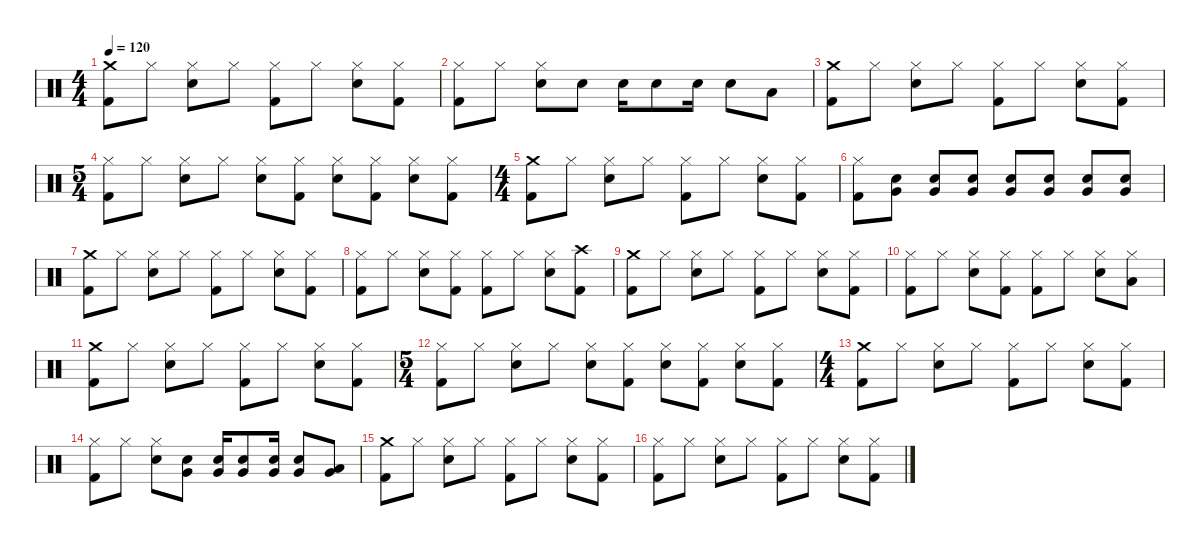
\defaultSystemsLayout 4
\hideDynamics
\bracketExtendMode nobrackets
\singleTrackTrackNamePolicy hidden
\multiTrackTrackNamePolicy hidden
\otherSystemsTrackNameOrientation horizontal
\track ("Ulrich" "drm.") {instrument percussion}
\staff {score}
\articulation defaults
\ts (4 4)
\tempo 120
\clef neutral
\ks c
("Crash medium (hit)" "Kick (hit) 2").8{dy f beam Down} "Hi-Hat (closed)".8{beam Down} ("Hi-Hat (closed)" "Snare (hit) 2").8{beam Down} "Hi-Hat (closed)".8{beam Down} ("Hi-Hat (closed)" "Kick (hit) 2").8{beam Down} "Hi-Hat (closed)".8{beam Down} ("Hi-Hat (closed)" "Snare (hit) 2").8{beam Down} ("Hi-Hat (closed)" "Kick (hit) 2").8{beam Down} |
("Hi-Hat (closed)" "Kick (hit) 2").8{beam Down} "Hi-Hat (closed)".8{beam Down} ("Hi-Hat (closed)" "Snare (hit) 2").8{beam Down} "Snare (hit) 2".8{beam Down} "Snare (hit) 2".16{beam Down} "Snare (hit) 2".8{beam Down} "Snare (hit) 2".16{beam Down} "Snare (hit) 2".8{beam Down} "Low Tom (hit)".8{dy fff beam Down} |
("Crash medium (hit)" "Kick (hit) 2").8{dy f beam Down} "Hi-Hat (closed)".8{beam Down} ("Hi-Hat (closed)" "Snare (hit) 2").8{beam Down} "Hi-Hat (closed)".8{beam Down} ("Hi-Hat (closed)" "Kick (hit) 2").8{beam Down} "Hi-Hat (closed)".8{beam Down} ("Hi-Hat (closed)" "Snare (hit) 2").8{beam Down} ("Hi-Hat (closed)" "Kick (hit) 2").8{beam Down} |
\ts (5 4)
("Hi-Hat (closed)" "Kick (hit) 2").8{beam Down} "Hi-Hat (closed)".8{beam Down} ("Hi-Hat (closed)" "Snare (hit) 2").8{beam Down} "Hi-Hat (closed)".8{beam Down} ("Hi-Hat (closed)" "Snare (hit) 2").8{beam Down} ("Hi-Hat (closed)" "Kick (hit) 2").8{beam Down} ("Hi-Hat (closed)" "Snare (hit) 2").8{beam Down} ("Hi-Hat (closed)" "Kick (hit) 2").8{beam Down} ("Hi-Hat (closed)" "Snare (hit) 2").8{beam Down} ("Hi-Hat (closed)" "Kick (hit) 2").8{beam Down} |
\ts (4 4)
("Crash medium (hit)" "Kick (hit) 2").8{beam Down} "Hi-Hat (closed)".8{beam Down} ("Hi-Hat (closed)" "Snare (hit) 2").8{beam Down} "Hi-Hat (closed)".8{beam Down} ("Hi-Hat (closed)" "Kick (hit) 2").8{beam Down} "Hi-Hat (closed)".8{beam Down} ("Hi-Hat (closed)" "Snare (hit) 2").8{beam Down} ("Hi-Hat (closed)" "Kick (hit) 2").8{beam Down} |
("Hi-Hat (closed)" "Kick (hit) 2").8{beam Down} ("Snare (hit) 2" "Very Low Tom (hit)").8{beam Down} ("Snare (hit) 2" "Very Low Tom (hit)").8{beam Up} ("Snare (hit) 2" "Very Low Tom (hit)").8{beam Up} ("Snare (hit) 2" "Very Low Tom (hit)").8{beam Up} ("Snare (hit) 2" "Very Low Tom (hit)").8{beam Up} ("Snare (hit) 2" "Very Low Tom (hit)").8{beam Up} ("Snare (hit) 2" "Very Low Tom (hit)").8{beam Up} |
("Crash medium (hit)" "Kick (hit) 2").8{beam Down} "Hi-Hat (closed)".8{beam Down} ("Hi-Hat (closed)" "Snare (hit) 2").8{beam Down} "Hi-Hat (closed)".8{beam Down} ("Hi-Hat (closed)" "Kick (hit) 2").8{beam Down} "Hi-Hat (closed)".8{beam Down} ("Hi-Hat (closed)" "Snare (hit) 2").8{beam Down} ("Hi-Hat (closed)" "Kick (hit) 2").8{beam Down} |
("Hi-Hat (closed)" "Kick (hit) 2").8{beam Down} "Hi-Hat (closed)".8{beam Down} ("Hi-Hat (closed)" "Snare (hit) 2").8{beam Down} ("Hi-Hat (closed)" "Kick (hit) 2").8{beam Down} ("Hi-Hat (closed)" "Kick (hit) 2").8{beam Down} "Hi-Hat (closed)".8{beam Down} ("Hi-Hat (closed)" "Snare (hit) 2").8{beam Down} ("Crash high (hit)" "Kick (hit) 2").8{beam Down} |
("Crash medium (hit)" "Kick (hit) 2").8{beam Down} "Hi-Hat (closed)".8{beam Down} ("Hi-Hat (closed)" "Snare (hit) 2").8{beam Down} "Hi-Hat (closed)".8{beam Down} ("Hi-Hat (closed)" "Kick (hit) 2").8{beam Down} "Hi-Hat (closed)".8{beam Down} ("Hi-Hat (closed)" "Snare (hit) 2").8{beam Down} ("Hi-Hat (closed)" "Kick (hit) 2").8{beam Down} |
("Hi-Hat (closed)" "Kick (hit) 2").8{beam Down} "Hi-Hat (closed)".8{beam Down} ("Hi-Hat (closed)" "Snare (hit) 2").8{beam Down} ("Hi-Hat (closed)" "Kick (hit) 2").8{beam Down} ("Hi-Hat (closed)" "Kick (hit) 2").8{beam Down} "Hi-Hat (closed)".8{beam Down} ("Hi-Hat (closed)" "Snare (hit) 2").8{beam Down} ("Hi-Hat (closed)" "Low Tom (hit)").8{beam Down} |
("Crash medium (hit)" "Kick (hit) 2").8{beam Down} "Hi-Hat (closed)".8{beam Down} ("Hi-Hat (closed)" "Snare (hit) 2").8{beam Down} "Hi-Hat (closed)".8{beam Down} ("Hi-Hat (closed)" "Kick (hit) 2").8{beam Down} "Hi-Hat (closed)".8{beam Down} ("Hi-Hat (closed)" "Snare (hit) 2").8{beam Down} ("Hi-Hat (closed)" "Kick (hit) 2").8{beam Down} |
\ts (5 4)
("Hi-Hat (closed)" "Kick (hit) 2").8{beam Down} "Hi-Hat (closed)".8{beam Down} ("Hi-Hat (closed)" "Snare (hit) 2").8{beam Down} "Hi-Hat (closed)".8{beam Down} ("Hi-Hat (closed)" "Snare (hit) 2").8{beam Down} ("Hi-Hat (closed)" "Kick (hit) 2").8{beam Down} ("Hi-Hat (closed)" "Snare (hit) 2").8{beam Down} ("Hi-Hat (closed)" "Kick (hit) 2").8{beam Down} ("Hi-Hat (closed)" "Snare (hit) 2").8{beam Down} ("Hi-Hat (closed)" "Kick (hit) 2").8{beam Down} |
\ts (4 4)
("Crash medium (hit)" "Kick (hit) 2").8{beam Down} "Hi-Hat (closed)".8{beam Down} ("Hi-Hat (closed)" "Snare (hit) 2").8{beam Down} "Hi-Hat (closed)".8{beam Down} ("Hi-Hat (closed)" "Kick (hit) 2").8{beam Down} "Hi-Hat (closed)".8{beam Down} ("Hi-Hat (closed)" "Snare (hit) 2").8{beam Down} ("Hi-Hat (closed)" "Kick (hit) 2").8{beam Down} |
("Hi-Hat (closed)" "Kick (hit) 2").8{beam Down} "Hi-Hat (closed)".8{beam Down} ("Hi-Hat (closed)" "Snare (hit) 2").8{beam Down} ("Snare (hit) 2" "Very Low Tom (hit)").8{beam Down} ("Snare (hit) 2" "Very Low Tom (hit)").16{beam Up} ("Snare (hit) 2" "Very Low Tom (hit)").8{beam Up} ("Snare (hit) 2" "Very Low Tom (hit)").16{beam Up} ("Snare (hit) 2" "Very Low Tom (hit)").8{beam Up} ("Low Tom (hit)" "Very Low Tom (hit)").8{dy fff beam Up} |
("Crash medium (hit)" "Kick (hit) 2").8{dy f beam Down} "Hi-Hat (closed)".8{beam Down} ("Hi-Hat (closed)" "Snare (hit) 2").8{beam Down} "Hi-Hat (closed)".8{beam Down} ("Hi-Hat (closed)" "Kick (hit) 2").8{beam Down} "Hi-Hat (closed)".8{beam Down} ("Hi-Hat (closed)" "Snare (hit) 2").8{beam Down} ("Hi-Hat (closed)" "Kick (hit) 2").8{beam Down} |
("Hi-Hat (closed)" "Kick (hit) 2").8{beam Down} "Hi-Hat (closed)".8{beam Down} ("Hi-Hat (closed)" "Snare (hit) 2").8{beam Down} "Hi-Hat (closed)".8{beam Down} ("Hi-Hat (closed)" "Kick (hit) 2").8{beam Down} "Hi-Hat (closed)".8{beam Down} ("Hi-Hat (closed)" "Snare (hit) 2").8{beam Down} ("Hi-Hat (closed)" "Kick (hit) 2").8{beam Down}
